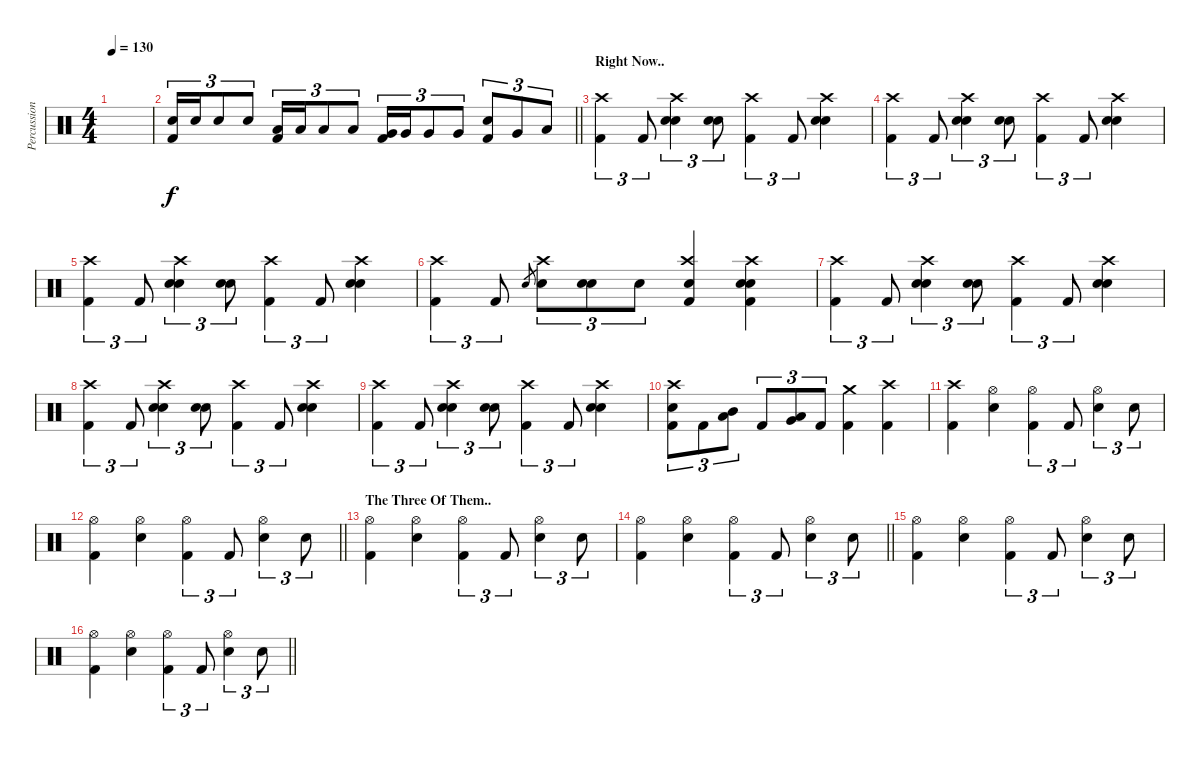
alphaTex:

\track ("Percussion" "Percussion") {instrument percussion}
\staff {score}
\articulation defaults
\ts (4 4)
\tempo 130
\clef neutral
\ks c
|
\barLineRight lightlight
("Electric Snare (hit)" "Kick (hit) 2").16{tu (3 2) dy f} "Electric Snare (hit)".16{tu (3 2)} "Electric Snare (hit)".8{tu (3 2)} "Electric Snare (hit)".8{tu (3 2)} ("Low Tom (hit)" "Kick (hit) 2").16{tu (3 2)} "Low Tom (hit)".16{tu (3 2)} "Low Tom (hit)".8{tu (3 2)} "Low Tom (hit)".8{tu (3 2)} ("Very Low Tom (hit)" "Kick (hit) 2").16{tu (3 2)} "Very Low Tom (hit)".16{tu (3 2)} "Very Low Tom (hit)".8{tu (3 2)} "Very Low Tom (hit)".8{tu (3 2)} ("Electric Snare (hit)" "Kick (hit) 2").8{tu (3 2)} "Very Low Tom (hit)".8{tu (3 2)} "Low Floor Tom (hit)".8{tu (3 2)} |
\section ("" "Right Now..")
("Crash high (hit)" "Kick (hit) 2").4{tu (3 2)} "Kick (hit) 2".8{tu (3 2)} ("Crash high (hit)" "Hand Clap (hit)" "Electric Snare (hit)").4{tu (3 2)} ("Hand Clap (hit)" "Electric Snare (hit)").8{tu (3 2)} ("Crash high (hit)" "Kick (hit) 2").4{tu (3 2)} "Kick (hit) 2".8{tu (3 2)} ("Crash high (hit)" "Hand Clap (hit)" "Electric Snare (hit)").4 |
("Crash high (hit)" "Kick (hit) 2").4{tu (3 2)} "Kick (hit) 2".8{tu (3 2)} ("Crash high (hit)" "Hand Clap (hit)" "Electric Snare (hit)").4{tu (3 2)} ("Hand Clap (hit)" "Electric Snare (hit)").8{tu (3 2)} ("Crash high (hit)" "Kick (hit) 2").4{tu (3 2)} "Kick (hit) 2".8{tu (3 2)} ("Crash high (hit)" "Hand Clap (hit)" "Electric Snare (hit)").4 |
("Crash high (hit)" "Kick (hit) 2").4{tu (3 2)} "Kick (hit) 2".8{tu (3 2)} ("Crash high (hit)" "Hand Clap (hit)" "Electric Snare (hit)").4{tu (3 2)} ("Hand Clap (hit)" "Electric Snare (hit)").8{tu (3 2)} ("Crash high (hit)" "Kick (hit) 2").4{tu (3 2)} "Kick (hit) 2".8{tu (3 2)} ("Crash high (hit)" "Hand Clap (hit)" "Electric Snare (hit)").4 |
("Crash high (hit)" "Kick (hit) 2").4{tu (3 2)} "Kick (hit) 2".8{tu (3 2)} "Electric Snare (hit)".8{gr} ("Crash high (hit)" "Electric Snare (hit)").8{tu (3 2)} ("Hand Clap (hit)" "Electric Snare (hit)").8{tu (3 2)} "Electric Snare (hit)".8{tu (3 2)} ("Crash high (hit)" "Hand Clap (hit)" "Kick (hit) 2").4 ("Crash high (hit)" "Hand Clap (hit)" "Electric Snare (hit)" "Kick (hit) 2").4 |
("Crash high (hit)" "Kick (hit) 2").4{tu (3 2)} "Kick (hit) 2".8{tu (3 2)} ("Crash high (hit)" "Hand Clap (hit)" "Electric Snare (hit)").4{tu (3 2)} ("Hand Clap (hit)" "Electric Snare (hit)").8{tu (3 2)} ("Crash high (hit)" "Kick (hit) 2").4{tu (3 2)} "Kick (hit) 2".8{tu (3 2)} ("Crash high (hit)" "Hand Clap (hit)" "Electric Snare (hit)").4 |
("Crash high (hit)" "Kick (hit) 2").4{tu (3 2)} "Kick (hit) 2".8{tu (3 2)} ("Crash high (hit)" "Hand Clap (hit)" "Electric Snare (hit)").4{tu (3 2)} ("Hand Clap (hit)" "Electric Snare (hit)").8{tu (3 2)} ("Crash high (hit)" "Kick (hit) 2").4{tu (3 2)} "Kick (hit) 2".8{tu (3 2)} ("Crash high (hit)" "Hand Clap (hit)" "Electric Snare (hit)").4 |
("Crash high (hit)" "Kick (hit) 2").4{tu (3 2)} "Kick (hit) 2".8{tu (3 2)} ("Crash high (hit)" "Hand Clap (hit)" "Electric Snare (hit)").4{tu (3 2)} ("Hand Clap (hit)" "Electric Snare (hit)").8{tu (3 2)} ("Crash high (hit)" "Kick (hit) 2").4{tu (3 2)} "Kick (hit) 2".8{tu (3 2)} ("Crash high (hit)" "Hand Clap (hit)" "Electric Snare (hit)").4 |
("Crash high (hit)" "Electric Snare (hit)" "Kick (hit) 2").8{tu (3 2)} "Kick (hit) 2".8{tu (3 2)} ("Mid Tom (hit)" "Low Tom (hit)").8{tu (3 2)} "Kick (hit) 2".8{tu (3 2)} ("Low Tom (hit)" "Very Low Tom (hit)").8{tu (3 2)} "Kick (hit) 2".8{tu (3 2)} ("Crash medium (hit)" "Kick (hit) 2").4 ("Crash high (hit)" "Kick (hit) 2").4 |
("Crash high (hit)" "Kick (hit) 2").4 ("Hi-Hat (open)" "Electric Snare (hit)").4 ("Hi-Hat (open)" "Kick (hit) 2").4{tu (3 2)} "Kick (hit) 2".8{tu (3 2)} ("Hi-Hat (open)" "Electric Snare (hit)").4{tu (3 2)} "Electric Snare (hit)".8{tu (3 2)} |
\barLineRight lightlight
("Hi-Hat (open)" "Kick (hit) 2").4 ("Hi-Hat (open)" "Electric Snare (hit)").4 ("Hi-Hat (open)" "Kick (hit) 2").4{tu (3 2)} "Kick (hit) 2".8{tu (3 2)} ("Hi-Hat (open)" "Electric Snare (hit)").4{tu (3 2)} "Electric Snare (hit)".8{tu (3 2)} |
\section ("" "The Three Of Them..")
("Hi-Hat (open)" "Kick (hit) 2").4 ("Hi-Hat (open)" "Electric Snare (hit)").4 ("Hi-Hat (open)" "Kick (hit) 2").4{tu (3 2)} "Kick (hit) 2".8{tu (3 2)} ("Hi-Hat (open)" "Electric Snare (hit)").4{tu (3 2)} "Electric Snare (hit)".8{tu (3 2)} |
\barLineRight lightlight
("Hi-Hat (open)" "Kick (hit) 2").4 ("Hi-Hat (open)" "Electric Snare (hit)").4 ("Hi-Hat (open)" "Kick (hit) 2").4{tu (3 2)} "Kick (hit) 2".8{tu (3 2)} ("Hi-Hat (open)" "Electric Snare (hit)").4{tu (3 2)} "Electric Snare (hit)".8{tu (3 2)} |
("Hi-Hat (open)" "Kick (hit) 2").4 ("Hi-Hat (open)" "Electric Snare (hit)").4 ("Hi-Hat (open)" "Kick (hit) 2").4{tu (3 2)} "Kick (hit) 2".8{tu (3 2)} ("Hi-Hat (open)" "Electric Snare (hit)").4{tu (3 2)} "Electric Snare (hit)".8{tu (3 2)} |
\barLineRight lightlight
("Hi-Hat (open)" "Kick (hit) 2").4 ("Hi-Hat (open)" "Electric Snare (hit)").4 ("Hi-Hat (open)" "Kick (hit) 2").4{tu (3 2)} "Kick (hit) 2".8{tu (3 2)} ("Hi-Hat (open)" "Electric Snare (hit)").4{tu (3 2)} "Electric Snare (hit)".8{tu (3 2)}
